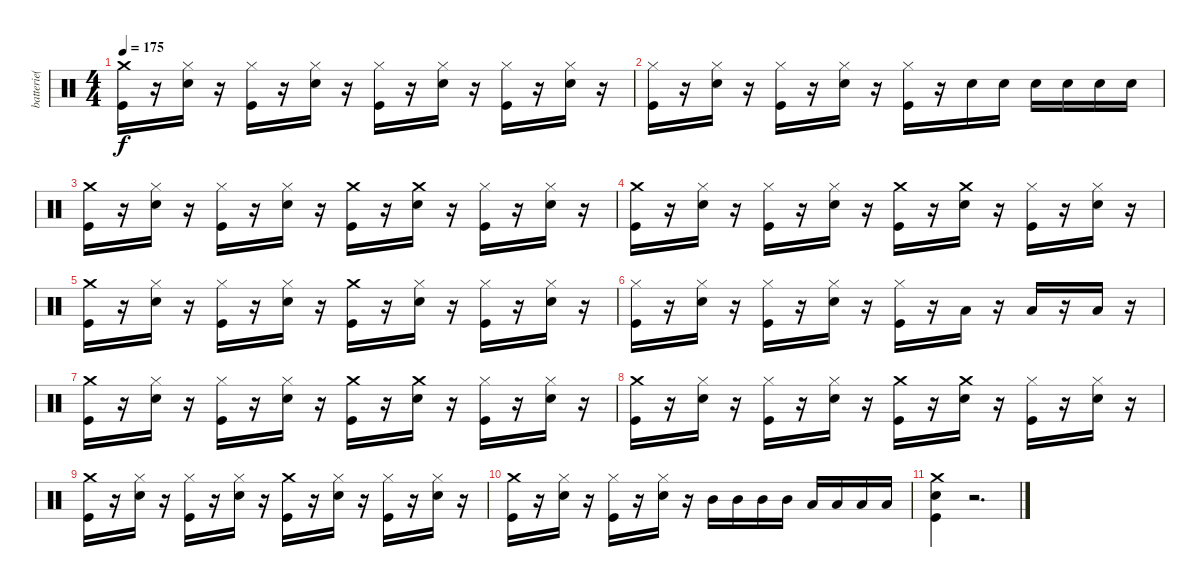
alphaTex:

\track ("batterie( Meggers )" "batterie( ") {instrument percussion}
\staff {score}
\articulation defaults
\ts (4 4)
\tempo 175
\clef neutral
\ks c
("Crash medium (hit)" "Kick (hit)").16{dy f} r.16 ("Hi-Hat (closed)" "Snare (hit) 2").16 r.16 ("Hi-Hat (closed)" "Kick (hit)").16 r.16 ("Hi-Hat (closed)" "Snare (hit) 2").16 r.16 ("Hi-Hat (closed)" "Kick (hit)").16 r.16 ("Hi-Hat (closed)" "Snare (hit) 2").16 r.16 ("Hi-Hat (closed)" "Kick (hit)").16 r.16 ("Hi-Hat (closed)" "Snare (hit) 2").16 r.16 |
("Hi-Hat (closed)" "Kick (hit)").16 r.16 ("Hi-Hat (closed)" "Snare (hit) 2").16 r.16 ("Hi-Hat (closed)" "Kick (hit)").16 r.16 ("Hi-Hat (closed)" "Snare (hit) 2").16 r.16 ("Hi-Hat (closed)" "Kick (hit)").16 r.16 "Snare (hit) 2".16 "Snare (hit) 2".16 "Snare (hit) 2".16 "Snare (hit) 2".16 "Snare (hit) 2".16 "Snare (hit) 2".16 |
("Crash medium (hit)" "Kick (hit)").16 r.16 ("Hi-Hat (closed)" "Snare (hit) 2").16 r.16 ("Hi-Hat (closed)" "Kick (hit)").16 r.16 ("Hi-Hat (closed)" "Snare (hit) 2").16 r.16 ("Crash medium (hit)" "Kick (hit)").16 r.16 ("Crash medium (hit)" "Snare (hit) 2").16 r.16 ("Hi-Hat (closed)" "Kick (hit)").16 r.16 ("Hi-Hat (closed)" "Snare (hit) 2").16 r.16 |
("Crash medium (hit)" "Kick (hit)").16 r.16 ("Hi-Hat (closed)" "Snare (hit) 2").16 r.16 ("Hi-Hat (closed)" "Kick (hit)").16 r.16 ("Hi-Hat (closed)" "Snare (hit) 2").16 r.16 ("Crash medium (hit)" "Kick (hit)").16 r.16 ("Crash medium (hit)" "Snare (hit) 2").16 r.16 ("Hi-Hat (closed)" "Kick (hit)").16 r.16 ("Hi-Hat (closed)" "Snare (hit) 2").16 r.16 |
("Crash medium (hit)" "Kick (hit)").16 r.16 ("Hi-Hat (closed)" "Snare (hit) 2").16 r.16 ("Hi-Hat (closed)" "Kick (hit)").16 r.16 ("Hi-Hat (closed)" "Snare (hit) 2").16 r.16 ("Crash medium (hit)" "Kick (hit)").16 r.16 ("Hi-Hat (closed)" "Snare (hit) 2").16 r.16 ("Hi-Hat (closed)" "Kick (hit)").16 r.16 ("Hi-Hat (closed)" "Snare (hit) 2").16 r.16 |
("Hi-Hat (closed)" "Kick (hit)").16 r.16 ("Hi-Hat (closed)" "Snare (hit) 2").16 r.16 ("Hi-Hat (closed)" "Kick (hit)").16 r.16 ("Hi-Hat (closed)" "Snare (hit) 2").16 r.16 ("Hi-Hat (closed)" "Kick (hit)").16 r.16 "Low Floor Tom (hit)".16 r.16 "Low Floor Tom (hit)".16 r.16 "Low Floor Tom (hit)".16 r.16 |
("Crash medium (hit)" "Kick (hit)").16 r.16 ("Hi-Hat (closed)" "Snare (hit) 2").16 r.16 ("Hi-Hat (closed)" "Kick (hit)").16 r.16 ("Hi-Hat (closed)" "Snare (hit) 2").16 r.16 ("Crash medium (hit)" "Kick (hit)").16 r.16 ("Crash medium (hit)" "Snare (hit) 2").16 r.16 ("Hi-Hat (closed)" "Kick (hit)").16 r.16 ("Hi-Hat (closed)" "Snare (hit) 2").16 r.16 |
("Crash medium (hit)" "Kick (hit)").16 r.16 ("Hi-Hat (closed)" "Snare (hit) 2").16 r.16 ("Hi-Hat (closed)" "Kick (hit)").16 r.16 ("Hi-Hat (closed)" "Snare (hit) 2").16 r.16 ("Crash medium (hit)" "Kick (hit)").16 r.16 ("Crash medium (hit)" "Snare (hit) 2").16 r.16 ("Hi-Hat (closed)" "Kick (hit)").16 r.16 ("Hi-Hat (closed)" "Snare (hit) 2").16 r.16 |
("Crash medium (hit)" "Kick (hit)").16 r.16 ("Hi-Hat (closed)" "Snare (hit) 2").16 r.16 ("Hi-Hat (closed)" "Kick (hit)").16 r.16 ("Hi-Hat (closed)" "Snare (hit) 2").16 r.16 ("Crash medium (hit)" "Kick (hit)").16 r.16 ("Hi-Hat (closed)" "Snare (hit) 2").16 r.16 ("Hi-Hat (closed)" "Kick (hit)").16 r.16 ("Hi-Hat (closed)" "Snare (hit) 2").16 r.16 |
("Crash medium (hit)" "Kick (hit)").16 r.16 ("Hi-Hat (closed)" "Snare (hit) 2").16 r.16 ("Hi-Hat (closed)" "Kick (hit)").16 r.16 ("Hi-Hat (closed)" "Snare (hit) 2").16 r.16 "Mid Tom (hit)".16 "Mid Tom (hit)".16 "Mid Tom (hit)".16 "Mid Tom (hit)".16 "Low Tom (hit)".16 "Low Tom (hit)".16 "Low Tom (hit)".16 "Low Tom (hit)".16 |
("Crash medium (hit)" "Snare (hit) 2" "Kick (hit)").4 r.2{d}
